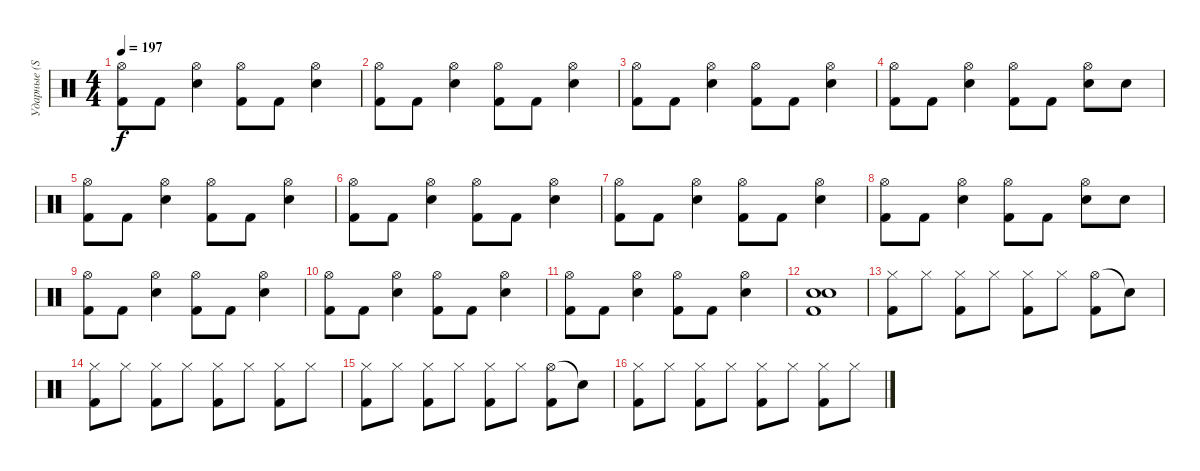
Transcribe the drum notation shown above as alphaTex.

\track ("Ударные (Stevo32)" "Ударные (S") {instrument percussion}
\staff {score}
\articulation defaults
\ts (4 4)
\tempo 197
\clef neutral
\ks c
("Hi-Hat (open)" "Kick (hit) 2").8{dy f} "Kick (hit) 2".8 ("Hi-Hat (open)" "Snare (hit) 2").4 ("Hi-Hat (open)" "Kick (hit) 2").8 "Kick (hit) 2".8 ("Hi-Hat (open)" "Snare (hit) 2").4 |
("Hi-Hat (open)" "Kick (hit) 2").8 "Kick (hit) 2".8 ("Hi-Hat (open)" "Snare (hit) 2").4 ("Hi-Hat (open)" "Kick (hit) 2").8 "Kick (hit) 2".8 ("Hi-Hat (open)" "Snare (hit) 2").4 |
("Hi-Hat (open)" "Kick (hit) 2").8 "Kick (hit) 2".8 ("Hi-Hat (open)" "Snare (hit) 2").4 ("Hi-Hat (open)" "Kick (hit) 2").8 "Kick (hit) 2".8 ("Hi-Hat (open)" "Snare (hit) 2").4 |
("Hi-Hat (open)" "Kick (hit) 2").8 "Kick (hit) 2".8 ("Hi-Hat (open)" "Snare (hit) 2").4 ("Hi-Hat (open)" "Kick (hit) 2").8 "Kick (hit) 2".8 ("Hi-Hat (open)" "Snare (hit) 2").8 "Snare (hit) 2".8 |
("Hi-Hat (open)" "Kick (hit) 2").8 "Kick (hit) 2".8 ("Hi-Hat (open)" "Snare (hit) 2").4 ("Hi-Hat (open)" "Kick (hit) 2").8 "Kick (hit) 2".8 ("Hi-Hat (open)" "Snare (hit) 2").4 |
("Hi-Hat (open)" "Kick (hit) 2").8 "Kick (hit) 2".8 ("Hi-Hat (open)" "Snare (hit) 2").4 ("Hi-Hat (open)" "Kick (hit) 2").8 "Kick (hit) 2".8 ("Hi-Hat (open)" "Snare (hit) 2").4 |
("Hi-Hat (open)" "Kick (hit) 2").8 "Kick (hit) 2".8 ("Hi-Hat (open)" "Snare (hit) 2").4 ("Hi-Hat (open)" "Kick (hit) 2").8 "Kick (hit) 2".8 ("Hi-Hat (open)" "Snare (hit) 2").4 |
("Hi-Hat (open)" "Kick (hit) 2").8 "Kick (hit) 2".8 ("Hi-Hat (open)" "Snare (hit) 2").4 ("Hi-Hat (open)" "Kick (hit) 2").8 "Kick (hit) 2".8 ("Hi-Hat (open)" "Snare (hit) 2").8 "Snare (hit) 2".8 |
("Hi-Hat (open)" "Kick (hit) 2").8 "Kick (hit) 2".8 ("Hi-Hat (open)" "Snare (hit) 2").4 ("Hi-Hat (open)" "Kick (hit) 2").8 "Kick (hit) 2".8 ("Hi-Hat (open)" "Snare (hit) 2").4 |
("Hi-Hat (open)" "Kick (hit) 2").8 "Kick (hit) 2".8 ("Hi-Hat (open)" "Snare (hit) 2").4 ("Hi-Hat (open)" "Kick (hit) 2").8 "Kick (hit) 2".8 ("Hi-Hat (open)" "Snare (hit) 2").4 |
("Hi-Hat (open)" "Kick (hit) 2").8 "Kick (hit) 2".8 ("Hi-Hat (open)" "Snare (hit) 2").4 ("Hi-Hat (open)" "Kick (hit) 2").8 "Kick (hit) 2".8 ("Hi-Hat (open)" "Snare (hit) 2").4 |
("Electric Snare (hit)" "Snare (hit) 2" "Kick (hit) 2").1 |
("Hi-Hat (closed)" "Kick (hit) 2").8 "Hi-Hat (closed)".8 ("Hi-Hat (closed)" "Kick (hit) 2").8 "Hi-Hat (closed)".8 ("Hi-Hat (closed)" "Kick (hit) 2").8 "Hi-Hat (closed)".8 ("Hi-Hat (open)" "Kick (hit) 2").8 "Snare (hit)"{t}.8 |
("Hi-Hat (closed)" "Kick (hit) 2").8 "Hi-Hat (closed)".8 ("Hi-Hat (closed)" "Kick (hit) 2").8 "Hi-Hat (closed)".8 ("Hi-Hat (closed)" "Kick (hit) 2").8 "Hi-Hat (closed)".8 ("Hi-Hat (closed)" "Kick (hit) 2").8 "Hi-Hat (closed)".8 |
("Hi-Hat (closed)" "Kick (hit) 2").8 "Hi-Hat (closed)".8 ("Hi-Hat (closed)" "Kick (hit) 2").8 "Hi-Hat (closed)".8 ("Hi-Hat (closed)" "Kick (hit) 2").8 "Hi-Hat (closed)".8 ("Hi-Hat (open)" "Kick (hit) 2").8 "Snare (hit)"{t}.8 |
("Hi-Hat (closed)" "Kick (hit) 2").8 "Hi-Hat (closed)".8 ("Hi-Hat (closed)" "Kick (hit) 2").8 "Hi-Hat (closed)".8 ("Hi-Hat (closed)" "Kick (hit) 2").8 "Hi-Hat (closed)".8 ("Hi-Hat (closed)" "Kick (hit) 2").8 "Hi-Hat (closed)".8
